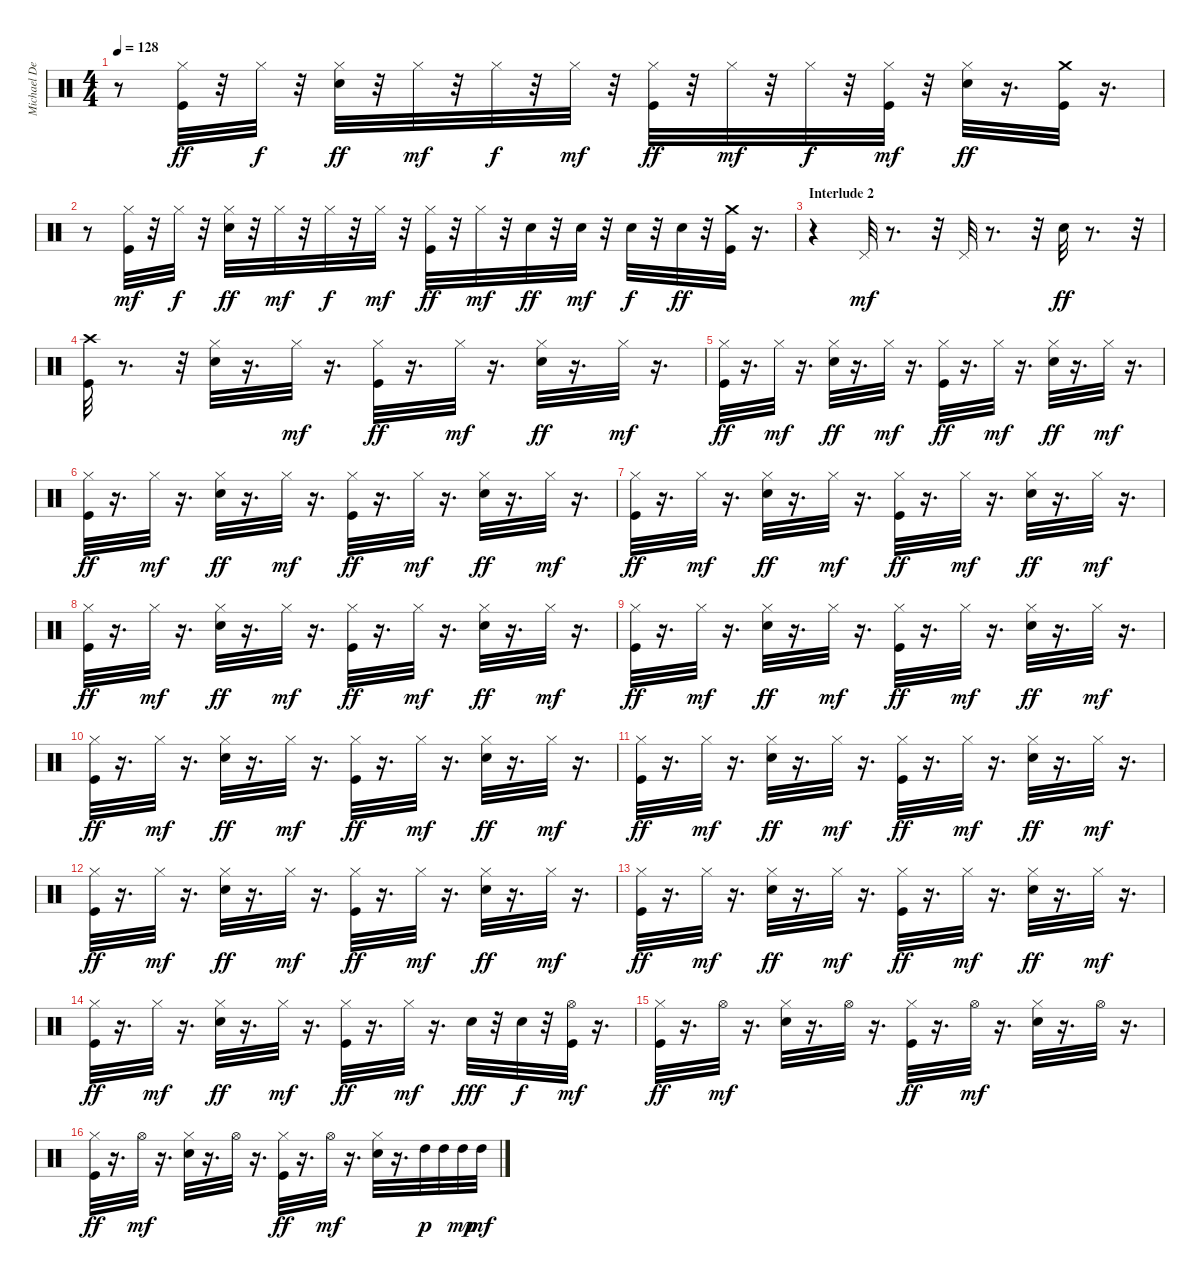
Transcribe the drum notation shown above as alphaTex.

\track ("Michael DeRosier" "Michael De") {instrument percussion}
\staff {score}
\articulation defaults
\ts (4 4)
\tempo 128
\clef neutral
\ks c
r.8{dy f} ("Hi-Hat (closed)" "Kick (hit)").32{dy ff} r.32 "Hi-Hat (closed)".32{dy f} r.32 ("Snare (hit) 2" "Hi-Hat (closed)").32{dy ff} r.32 "Hi-Hat (closed)".32{dy mf} r.32 "Hi-Hat (closed)".32{dy f} r.32 "Hi-Hat (closed)".32{dy mf} r.32 ("Hi-Hat (closed)" "Kick (hit)").32{dy ff} r.32 "Hi-Hat (closed)".32{dy mf} r.32 "Hi-Hat (closed)".32{dy f} r.32 ("Hi-Hat (closed)" "Kick (hit)").32{dy mf} r.32 ("Snare (hit) 2" "Hi-Hat (closed)").32{dy ff} r.16{d} ("Kick (hit)" "Crash medium (hit)").32 r.16{d} |
r.8 ("Hi-Hat (closed)" "Kick (hit)").32{dy mf} r.32 "Hi-Hat (closed)".32{dy f} r.32 ("Snare (hit) 2" "Hi-Hat (closed)").32{dy ff} r.32 "Hi-Hat (closed)".32{dy mf} r.32 "Hi-Hat (closed)".32{dy f} r.32 "Hi-Hat (closed)".32{dy mf} r.32 ("Hi-Hat (closed)" "Kick (hit)").32{dy ff} r.32 "Hi-Hat (closed)".32{dy mf} r.32 "Snare (hit) 2".32{dy ff} r.32 "Snare (hit) 2".32{dy mf} r.32 "Snare (hit) 2".32{dy f} r.32 "Snare (hit) 2".32{dy ff} r.32 ("Kick (hit)" "Crash medium (hit)").32 r.16{d} |
\section ("" "Interlude 2")
r.4 "Pedal Hi-Hat (hit)".32{dy mf} r.8{d} r.32 "Pedal Hi-Hat (hit)".32 r.8{d} r.32 "Snare (hit) 2".32{dy ff} r.8{d} r.32 |
("Kick (hit)" "Crash high (hit)").32 r.8{d} r.32 ("Snare (hit) 2" "Hi-Hat (closed)").32 r.16{d} "Hi-Hat (closed)".32{dy mf} r.16{d} ("Hi-Hat (closed)" "Kick (hit)").32{dy ff} r.16{d} "Hi-Hat (closed)".32{dy mf} r.16{d} ("Snare (hit) 2" "Hi-Hat (closed)").32{dy ff} r.16{d} "Hi-Hat (closed)".32{dy mf} r.16{d} |
("Hi-Hat (closed)" "Kick (hit)").32{dy ff} r.16{d} "Hi-Hat (closed)".32{dy mf} r.16{d} ("Snare (hit) 2" "Hi-Hat (closed)").32{dy ff} r.16{d} "Hi-Hat (closed)".32{dy mf} r.16{d} ("Hi-Hat (closed)" "Kick (hit)").32{dy ff} r.16{d} "Hi-Hat (closed)".32{dy mf} r.16{d} ("Snare (hit) 2" "Hi-Hat (closed)").32{dy ff} r.16{d} "Hi-Hat (closed)".32{dy mf} r.16{d} |
("Hi-Hat (closed)" "Kick (hit)").32{dy ff} r.16{d} "Hi-Hat (closed)".32{dy mf} r.16{d} ("Snare (hit) 2" "Hi-Hat (closed)").32{dy ff} r.16{d} "Hi-Hat (closed)".32{dy mf} r.16{d} ("Hi-Hat (closed)" "Kick (hit)").32{dy ff} r.16{d} "Hi-Hat (closed)".32{dy mf} r.16{d} ("Snare (hit) 2" "Hi-Hat (closed)").32{dy ff} r.16{d} "Hi-Hat (closed)".32{dy mf} r.16{d} |
("Hi-Hat (closed)" "Kick (hit)").32{dy ff} r.16{d} "Hi-Hat (closed)".32{dy mf} r.16{d} ("Snare (hit) 2" "Hi-Hat (closed)").32{dy ff} r.16{d} "Hi-Hat (closed)".32{dy mf} r.16{d} ("Hi-Hat (closed)" "Kick (hit)").32{dy ff} r.16{d} "Hi-Hat (closed)".32{dy mf} r.16{d} ("Snare (hit) 2" "Hi-Hat (closed)").32{dy ff} r.16{d} "Hi-Hat (closed)".32{dy mf} r.16{d} |
("Kick (hit)" "Hi-Hat (closed)").32{dy ff} r.16{d} "Hi-Hat (closed)".32{dy mf} r.16{d} ("Snare (hit) 2" "Hi-Hat (closed)").32{dy ff} r.16{d} "Hi-Hat (closed)".32{dy mf} r.16{d} ("Hi-Hat (closed)" "Kick (hit)").32{dy ff} r.16{d} "Hi-Hat (closed)".32{dy mf} r.16{d} ("Snare (hit) 2" "Hi-Hat (closed)").32{dy ff} r.16{d} "Hi-Hat (closed)".32{dy mf} r.16{d} |
("Hi-Hat (closed)" "Kick (hit)").32{dy ff} r.16{d} "Hi-Hat (closed)".32{dy mf} r.16{d} ("Snare (hit) 2" "Hi-Hat (closed)").32{dy ff} r.16{d} "Hi-Hat (closed)".32{dy mf} r.16{d} ("Hi-Hat (closed)" "Kick (hit)").32{dy ff} r.16{d} "Hi-Hat (closed)".32{dy mf} r.16{d} ("Snare (hit) 2" "Hi-Hat (closed)").32{dy ff} r.16{d} "Hi-Hat (closed)".32{dy mf} r.16{d} |
("Hi-Hat (closed)" "Kick (hit)").32{dy ff} r.16{d} "Hi-Hat (closed)".32{dy mf} r.16{d} ("Snare (hit) 2" "Hi-Hat (closed)").32{dy ff} r.16{d} "Hi-Hat (closed)".32{dy mf} r.16{d} ("Hi-Hat (closed)" "Kick (hit)").32{dy ff} r.16{d} "Hi-Hat (closed)".32{dy mf} r.16{d} ("Snare (hit) 2" "Hi-Hat (closed)").32{dy ff} r.16{d} "Hi-Hat (closed)".32{dy mf} r.16{d} |
("Kick (hit)" "Hi-Hat (closed)").32{dy ff} r.16{d} "Hi-Hat (closed)".32{dy mf} r.16{d} ("Snare (hit) 2" "Hi-Hat (closed)").32{dy ff} r.16{d} "Hi-Hat (closed)".32{dy mf} r.16{d} ("Hi-Hat (closed)" "Kick (hit)").32{dy ff} r.16{d} "Hi-Hat (closed)".32{dy mf} r.16{d} ("Snare (hit) 2" "Hi-Hat (closed)").32{dy ff} r.16{d} "Hi-Hat (closed)".32{dy mf} r.16{d} |
("Hi-Hat (closed)" "Kick (hit)").32{dy ff} r.16{d} "Hi-Hat (closed)".32{dy mf} r.16{d} ("Snare (hit) 2" "Hi-Hat (closed)").32{dy ff} r.16{d} "Hi-Hat (closed)".32{dy mf} r.16{d} ("Kick (hit)" "Hi-Hat (closed)").32{dy ff} r.16{d} "Hi-Hat (closed)".32{dy mf} r.16{d} ("Snare (hit) 2" "Hi-Hat (closed)").32{dy ff} r.16{d} "Hi-Hat (closed)".32{dy mf} r.16{d} |
("Hi-Hat (closed)" "Kick (hit)").32{dy ff} r.16{d} "Hi-Hat (closed)".32{dy mf} r.16{d} ("Snare (hit) 2" "Hi-Hat (closed)").32{dy ff} r.16{d} "Hi-Hat (closed)".32{dy mf} r.16{d} ("Hi-Hat (closed)" "Kick (hit)").32{dy ff} r.16{d} "Hi-Hat (closed)".32{dy mf} r.16{d} ("Snare (hit) 2" "Hi-Hat (closed)").32{dy ff} r.16{d} "Hi-Hat (closed)".32{dy mf} r.16{d} |
("Hi-Hat (closed)" "Kick (hit)").32{dy ff} r.16{d} "Hi-Hat (closed)".32{dy mf} r.16{d} ("Snare (hit) 2" "Hi-Hat (closed)").32{dy ff} r.16{d} "Hi-Hat (closed)".32{dy mf} r.16{d} ("Hi-Hat (closed)" "Kick (hit)").32{dy ff} r.16{d} "Hi-Hat (closed)".32{dy mf} r.16{d} "Snare (hit) 2".32{dy fff} r.32 "Snare (hit) 2".32{dy f} r.32 ("Hi-Hat (open)" "Kick (hit)").32{dy mf} r.16{d} |
("Hi-Hat (closed)" "Kick (hit)").32{dy ff} r.16{d} "Hi-Hat (open)".32{dy mf} r.16{d} ("Snare (hit) 2" "Hi-Hat (closed)").32 r.16{d} "Hi-Hat (open)".32 r.16{d} ("Hi-Hat (closed)" "Kick (hit)").32{dy ff} r.16{d} "Hi-Hat (open)".32{dy mf} r.16{d} ("Snare (hit) 2" "Hi-Hat (closed)").32 r.16{d} "Hi-Hat (open)".32 r.16{d} |
("Hi-Hat (closed)" "Kick (hit)").32{dy ff} r.16{d} "Hi-Hat (open)".32{dy mf} r.16{d} ("Snare (hit) 2" "Hi-Hat (closed)").32 r.16{d} "Hi-Hat (open)".32 r.16{d} ("Hi-Hat (closed)" "Kick (hit)").32{dy ff} r.16{d} "Hi-Hat (open)".32{dy mf} r.16{d} ("Snare (hit) 2" "Hi-Hat (closed)").32 r.16{d} "High Tom (hit)".32{dy p} "High Tom (hit)".32 "High Tom (hit)".32{dy mp} "High Tom (hit)".32{dy mf}
